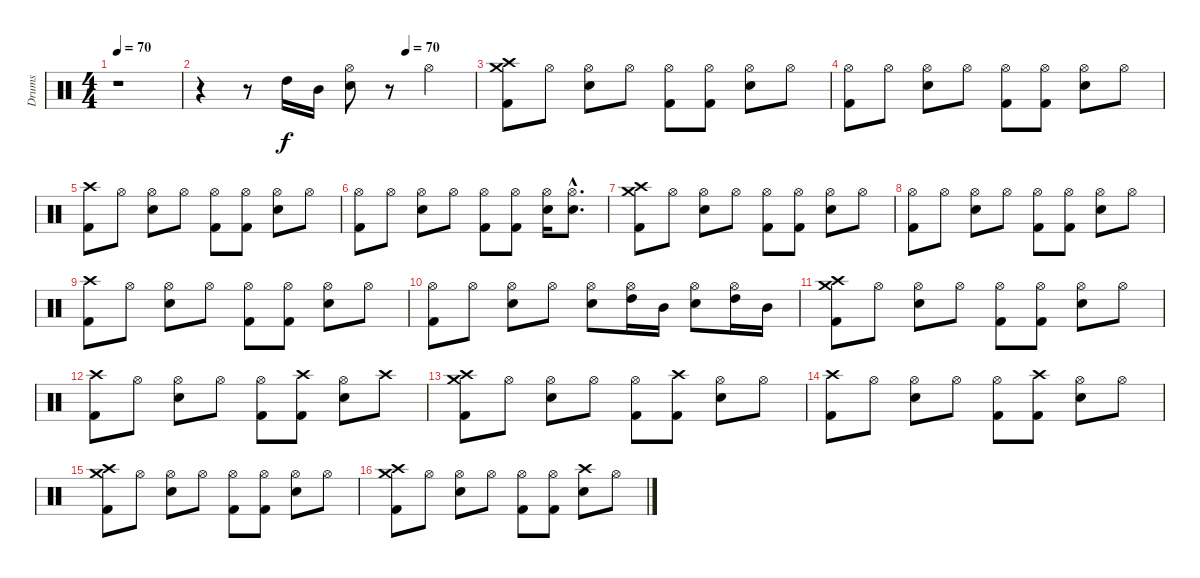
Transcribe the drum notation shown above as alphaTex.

\track ("Drums" "Drums") {instrument percussion}
\staff {score}
\articulation defaults
\ts (4 4)
\tempo 70
\clef neutral
\ks c
r.1{dy f} |
\tempo (70 0.75)
r.4 r.8 "High Tom (hit)".16 "Mid Tom (hit)".16 ("Hi-Hat (open)" "Electric Snare (hit)").8 r.8 "Hi-Hat (open)".4 |
("Crash high (hit)" "Crash medium (hit)" "Kick (hit) 2").8 "Hi-Hat (open)".8 ("Hi-Hat (open)" "Electric Snare (hit)").8 "Hi-Hat (open)".8 ("Hi-Hat (open)" "Kick (hit) 2").8 ("Hi-Hat (open)" "Kick (hit) 2").8 ("Hi-Hat (open)" "Electric Snare (hit)").8 "Hi-Hat (open)".8 |
("Hi-Hat (open)" "Kick (hit) 2").8 "Hi-Hat (open)".8 ("Hi-Hat (open)" "Electric Snare (hit)").8 "Hi-Hat (open)".8 ("Hi-Hat (open)" "Kick (hit) 2").8 ("Hi-Hat (open)" "Kick (hit) 2").8 ("Hi-Hat (open)" "Electric Snare (hit)").8 "Hi-Hat (open)".8 |
("Crash high (hit)" "Kick (hit) 2").8 "Hi-Hat (open)".8 ("Hi-Hat (open)" "Electric Snare (hit)").8 "Hi-Hat (open)".8 ("Hi-Hat (open)" "Kick (hit) 2").8 ("Hi-Hat (open)" "Kick (hit) 2").8 ("Hi-Hat (open)" "Electric Snare (hit)").8 "Hi-Hat (open)".8 |
("Hi-Hat (open)" "Kick (hit) 2").8 "Hi-Hat (open)".8 ("Hi-Hat (open)" "Electric Snare (hit)").8 "Hi-Hat (open)".8 ("Hi-Hat (open)" "Kick (hit) 2").8 ("Hi-Hat (open)" "Kick (hit) 2").8 ("Hi-Hat (open)" "Electric Snare (hit)").16 ("Hi-Hat (open)"{hac} "Electric Snare (hit)"{hac}).8{d} |
("Crash high (hit)" "Crash medium (hit)" "Kick (hit) 2").8 "Hi-Hat (open)".8 ("Hi-Hat (open)" "Electric Snare (hit)").8 "Hi-Hat (open)".8 ("Hi-Hat (open)" "Kick (hit) 2").8 ("Hi-Hat (open)" "Kick (hit) 2").8 ("Hi-Hat (open)" "Electric Snare (hit)").8 "Hi-Hat (open)".8 |
("Hi-Hat (open)" "Kick (hit) 2").8 "Hi-Hat (open)".8 ("Hi-Hat (open)" "Electric Snare (hit)").8 "Hi-Hat (open)".8 ("Hi-Hat (open)" "Kick (hit) 2").8 ("Hi-Hat (open)" "Kick (hit) 2").8 ("Hi-Hat (open)" "Electric Snare (hit)").8 "Hi-Hat (open)".8 |
("Crash high (hit)" "Kick (hit) 2").8 "Hi-Hat (open)".8 ("Hi-Hat (open)" "Electric Snare (hit)").8 "Hi-Hat (open)".8 ("Hi-Hat (open)" "Kick (hit) 2").8 ("Hi-Hat (open)" "Kick (hit) 2").8 ("Hi-Hat (open)" "Electric Snare (hit)").8 "Hi-Hat (open)".8 |
("Hi-Hat (open)" "Kick (hit) 2").8 "Hi-Hat (open)".8 ("Hi-Hat (open)" "Electric Snare (hit)").8 "Hi-Hat (open)".8 ("Hi-Hat (open)" "Electric Snare (hit)").8 ("Hi-Hat (open)" "High Tom (hit)").16 "Mid Tom (hit)".16 ("Hi-Hat (open)" "Electric Snare (hit)").8 ("Hi-Hat (open)" "High Tom (hit)").16 "Mid Tom (hit)".16 |
("Crash high (hit)" "Crash medium (hit)" "Kick (hit) 2").8 "Hi-Hat (open)".8 ("Hi-Hat (open)" "Electric Snare (hit)").8 "Hi-Hat (open)".8 ("Hi-Hat (open)" "Kick (hit) 2").8 ("Hi-Hat (open)" "Kick (hit) 2").8 ("Hi-Hat (open)" "Electric Snare (hit)").8 "Hi-Hat (open)".8 |
("Crash high (hit)" "Kick (hit) 2").8 "Hi-Hat (open)".8 ("Hi-Hat (open)" "Electric Snare (hit)").8 "Hi-Hat (open)".8 ("Hi-Hat (open)" "Kick (hit) 2").8 ("Crash high (hit)" "Kick (hit) 2").8 ("Hi-Hat (open)" "Electric Snare (hit)").8 "Crash high (hit)".8 |
("Crash high (hit)" "Crash medium (hit)" "Kick (hit) 2").8 "Hi-Hat (open)".8 ("Hi-Hat (open)" "Electric Snare (hit)").8 "Hi-Hat (open)".8 ("Hi-Hat (open)" "Kick (hit) 2").8 ("Crash high (hit)" "Kick (hit) 2").8 ("Hi-Hat (open)" "Electric Snare (hit)").8 "Hi-Hat (open)".8 |
("Crash high (hit)" "Kick (hit) 2").8 "Hi-Hat (open)".8 ("Hi-Hat (open)" "Electric Snare (hit)").8 "Hi-Hat (open)".8 ("Hi-Hat (open)" "Kick (hit) 2").8 ("Crash high (hit)" "Kick (hit) 2").8 ("Hi-Hat (open)" "Electric Snare (hit)").8 "Hi-Hat (open)".8 |
("Crash high (hit)" "Crash medium (hit)" "Kick (hit) 2").8 "Hi-Hat (open)".8 ("Hi-Hat (open)" "Electric Snare (hit)").8 "Hi-Hat (open)".8 ("Hi-Hat (open)" "Kick (hit) 2").8 ("Hi-Hat (open)" "Kick (hit) 2").8 ("Hi-Hat (open)" "Electric Snare (hit)").8 "Hi-Hat (open)".8 |
("Crash high (hit)" "Crash medium (hit)" "Kick (hit) 2").8 "Hi-Hat (open)".8 ("Hi-Hat (open)" "Electric Snare (hit)").8 "Hi-Hat (open)".8 ("Hi-Hat (open)" "Kick (hit) 2").8 ("Hi-Hat (open)" "Kick (hit) 2").8 ("Crash high (hit)" "Electric Snare (hit)").8 "Hi-Hat (open)".8
